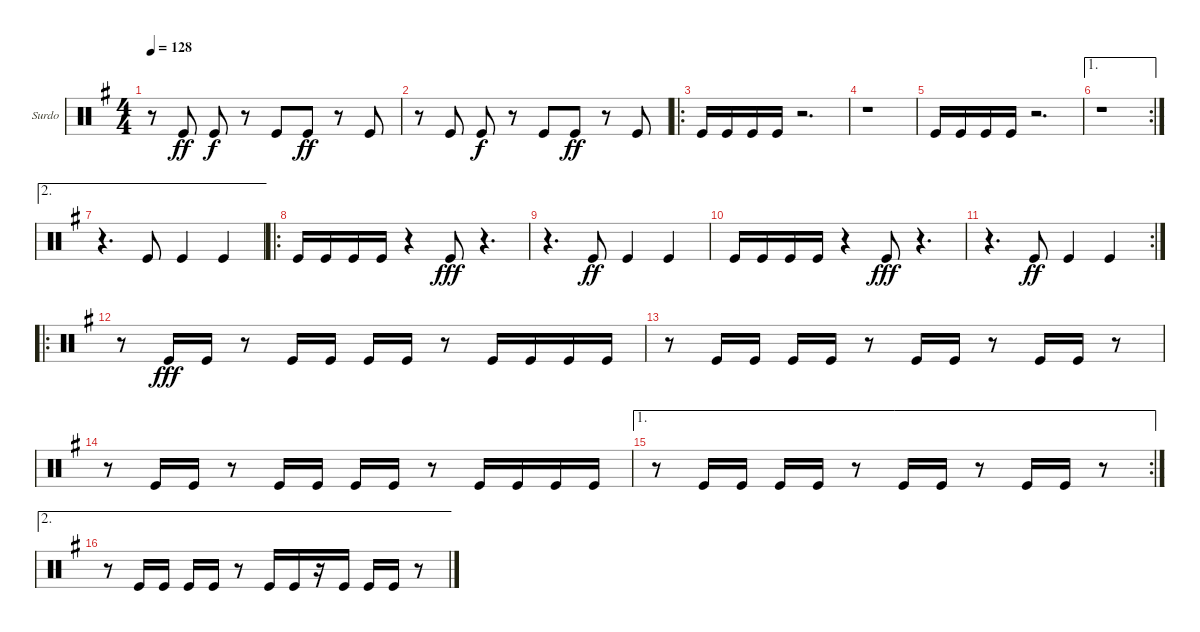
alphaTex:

\bracketExtendMode groupsimilarinstruments
\firstSystemTrackNameOrientation horizontal
\otherSystemsTrackNameOrientation horizontal
\track ("Surdo" "Surdo") {instrument percussion}
\staff {score}
\articulation defaults
\ts (4 4)
\tempo 128
\clef neutral
\ks eminor
r.8{dy f} "Kick (hit)".8{dy ff} "Kick (hit)".8{dy f} r.8 "Kick (hit)".8 "Kick (hit)".8{dy ff} r.8 "Kick (hit)".8 |
r.8 "Kick (hit)".8 "Kick (hit)".8{dy f} r.8 "Kick (hit)".8 "Kick (hit)".8{dy ff} r.8 "Kick (hit)".8 |
\ro "Kick (hit)".16 "Kick (hit)".16 "Kick (hit)".16 "Kick (hit)".16
r.2{d} |
r.1 |
"Kick (hit)".16 "Kick (hit)".16 "Kick (hit)".16 "Kick (hit)".16 r.2{d} |
\ae 1
\rc 2
r.1 |
\ae 2
r.4{d} "Kick (hit)".8 "Kick (hit)".4 "Kick (hit)".4 |
\ro "Kick (hit)".16 "Kick (hit)".16 "Kick (hit)".16 "Kick (hit)".16
r.4 "Kick (hit)".8{dy fff} r.4{d} |
r.4{d} "Kick (hit)".8{dy ff} "Kick (hit)".4 "Kick (hit)".4 |
"Kick (hit)".16 "Kick (hit)".16 "Kick (hit)".16 "Kick (hit)".16 r.4 "Kick (hit)".8{dy fff} r.4{d} |
\rc 2
r.4{d} "Kick (hit)".8{dy ff} "Kick (hit)".4 "Kick (hit)".4 |
\ro
r.8 "Kick (hit)".16{dy fff} "Kick (hit)".16 r.8 "Kick (hit)".16 "Kick (hit)".16 "Kick (hit)".16 "Kick (hit)".16 r.8 "Kick (hit)".16 "Kick (hit)".16 "Kick (hit)".16 "Kick (hit)".16 |
r.8 "Kick (hit)".16 "Kick (hit)".16 "Kick (hit)".16 "Kick (hit)".16 r.8 "Kick (hit)".16 "Kick (hit)".16 r.8 "Kick (hit)".16 "Kick (hit)".16 r.8 |
r.8 "Kick (hit)".16 "Kick (hit)".16 r.8 "Kick (hit)".16 "Kick (hit)".16 "Kick (hit)".16 "Kick (hit)".16 r.8 "Kick (hit)".16 "Kick (hit)".16 "Kick (hit)".16 "Kick (hit)".16 |
\ae 1
\rc 2
r.8 "Kick (hit)".16 "Kick (hit)".16 "Kick (hit)".16 "Kick (hit)".16 r.8 "Kick (hit)".16 "Kick (hit)".16 r.8 "Kick (hit)".16 "Kick (hit)".16 r.8 |
\ae 2
r.8 "Kick (hit)".16 "Kick (hit)".16 "Kick (hit)".16 "Kick (hit)".16 r.8 "Kick (hit)".16 "Kick (hit)".16 r.16 "Kick (hit)".16 "Kick (hit)".16 "Kick (hit)".16 r.8
